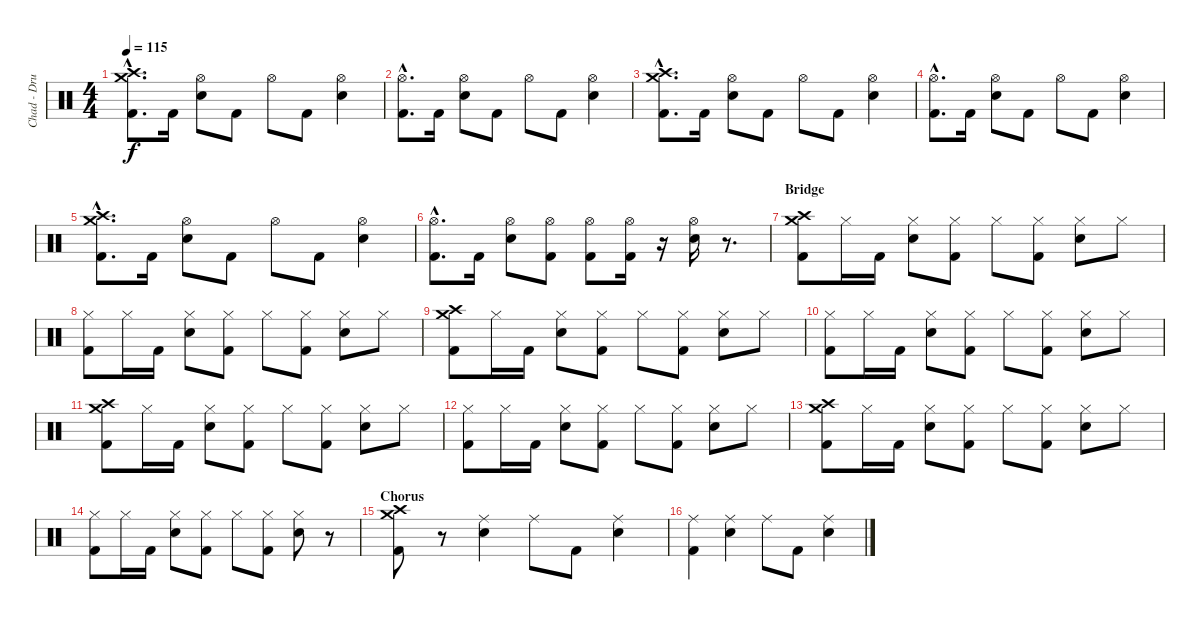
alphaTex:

\track ("Chad - Drums" "Chad - Dru") {instrument percussion}
\staff {score}
\articulation defaults
\ts (4 4)
\tempo 115
\clef neutral
\ks c
("Kick (hit) 2"{hac} "Crash medium (hit)"{hac} "Crash high (hit)"{hac}).8{d dy f} "Kick (hit) 2".16 ("Hi-Hat (open)" "Electric Snare (hit)").8 "Kick (hit) 2".8 "Hi-Hat (open)".8 "Kick (hit) 2".8 ("Hi-Hat (open)" "Electric Snare (hit)").4 |
("Kick (hit) 2"{hac} "Hi-Hat (open)"{hac}).8{d} "Kick (hit) 2".16 ("Electric Snare (hit)" "Hi-Hat (open)").8 "Kick (hit) 2".8 "Hi-Hat (open)".8 "Kick (hit) 2".8 ("Hi-Hat (open)" "Electric Snare (hit)").4 |
("Crash medium (hit)"{hac} "Crash high (hit)"{hac} "Kick (hit) 2"{hac}).8{d} "Kick (hit) 2".16 ("Electric Snare (hit)" "Hi-Hat (open)").8 "Kick (hit) 2".8 "Hi-Hat (open)".8 "Kick (hit) 2".8 ("Hi-Hat (open)" "Electric Snare (hit)").4 |
("Kick (hit) 2"{hac} "Hi-Hat (open)"{hac}).8{d} "Kick (hit) 2".16 ("Electric Snare (hit)" "Hi-Hat (open)").8 "Kick (hit) 2".8 "Hi-Hat (open)".8 "Kick (hit) 2".8 ("Hi-Hat (open)" "Electric Snare (hit)").4 |
("Kick (hit) 2"{hac} "Crash medium (hit)"{hac} "Crash high (hit)"{hac}).8{d} "Kick (hit) 2".16 ("Electric Snare (hit)" "Hi-Hat (open)").8 "Kick (hit) 2".8 "Hi-Hat (open)".8 "Kick (hit) 2".8 ("Electric Snare (hit)" "Hi-Hat (open)").4 |
("Kick (hit) 2"{hac} "Hi-Hat (open)"{hac}).8{d} "Kick (hit) 2".16 ("Hi-Hat (open)" "Electric Snare (hit)").8 ("Hi-Hat (open)" "Kick (hit) 2").8 ("Hi-Hat (open)" "Kick (hit) 2").8 ("Hi-Hat (open)" "Kick (hit) 2").16 r.16 ("Hi-Hat (open)" "Electric Snare (hit)").16 r.8{d} |
\section ("" "Bridge")
("Kick (hit) 2" "Crash medium (hit)" "Crash high (hit)").8 "Hi-Hat (closed)".16 "Kick (hit) 2".16 ("Hi-Hat (closed)" "Electric Snare (hit)").8 ("Kick (hit) 2" "Hi-Hat (closed)").8 "Hi-Hat (closed)".8 ("Kick (hit) 2" "Hi-Hat (closed)").8 ("Hi-Hat (closed)" "Electric Snare (hit)").8 "Hi-Hat (closed)".8 |
("Hi-Hat (closed)" "Kick (hit) 2").8 "Hi-Hat (closed)".16 "Kick (hit) 2".16 ("Hi-Hat (closed)" "Electric Snare (hit)").8 ("Hi-Hat (closed)" "Kick (hit) 2").8 "Hi-Hat (closed)".8 ("Kick (hit) 2" "Hi-Hat (closed)").8 ("Hi-Hat (closed)" "Electric Snare (hit)").8 "Hi-Hat (closed)".8 |
("Kick (hit) 2" "Crash medium (hit)" "Crash high (hit)").8 "Hi-Hat (closed)".16 "Kick (hit) 2".16 ("Hi-Hat (closed)" "Electric Snare (hit)").8 ("Kick (hit) 2" "Hi-Hat (closed)").8 "Hi-Hat (closed)".8 ("Kick (hit) 2" "Hi-Hat (closed)").8 ("Hi-Hat (closed)" "Electric Snare (hit)").8 "Hi-Hat (closed)".8 |
("Hi-Hat (closed)" "Kick (hit) 2").8 "Hi-Hat (closed)".16 "Kick (hit) 2".16 ("Hi-Hat (closed)" "Electric Snare (hit)").8 ("Hi-Hat (closed)" "Kick (hit) 2").8 "Hi-Hat (closed)".8 ("Kick (hit) 2" "Hi-Hat (closed)").8 ("Hi-Hat (closed)" "Electric Snare (hit)").8 "Hi-Hat (closed)".8 |
("Kick (hit) 2" "Crash medium (hit)" "Crash high (hit)").8 "Hi-Hat (closed)".16 "Kick (hit) 2".16 ("Electric Snare (hit)" "Hi-Hat (closed)").8 ("Kick (hit) 2" "Hi-Hat (closed)").8 "Hi-Hat (closed)".8 ("Kick (hit) 2" "Hi-Hat (closed)").8 ("Hi-Hat (closed)" "Electric Snare (hit)").8 "Hi-Hat (closed)".8 |
("Hi-Hat (closed)" "Kick (hit) 2").8 "Hi-Hat (closed)".16 "Kick (hit) 2".16 ("Electric Snare (hit)" "Hi-Hat (closed)").8 ("Kick (hit) 2" "Hi-Hat (closed)").8 "Hi-Hat (closed)".8 ("Kick (hit) 2" "Hi-Hat (closed)").8 ("Hi-Hat (closed)" "Electric Snare (hit)").8 "Hi-Hat (closed)".8 |
("Kick (hit) 2" "Crash high (hit)" "Crash medium (hit)").8 "Hi-Hat (closed)".16 "Kick (hit) 2".16 ("Hi-Hat (closed)" "Electric Snare (hit)").8 ("Kick (hit) 2" "Hi-Hat (closed)").8 "Hi-Hat (closed)".8 ("Hi-Hat (closed)" "Kick (hit) 2").8 ("Electric Snare (hit)" "Hi-Hat (closed)").8 "Hi-Hat (closed)".8 |
("Hi-Hat (closed)" "Kick (hit) 2").8 "Hi-Hat (closed)".16 "Kick (hit) 2".16 ("Hi-Hat (closed)" "Electric Snare (hit)").8 ("Hi-Hat (closed)" "Kick (hit) 2").8 "Hi-Hat (closed)".8 ("Hi-Hat (closed)" "Kick (hit) 2").8 ("Electric Snare (hit)" "Hi-Hat (closed)").8 r.8 |
\section ("" "Chorus")
("Crash high (hit)" "Crash medium (hit)" "Kick (hit) 2").8 r.8 ("Ride (middle)" "Electric Snare (hit)").4 "Ride (middle)".8 "Kick (hit) 2".8 ("Ride (middle)" "Electric Snare (hit)").4 |
("Ride (middle)" "Kick (hit) 2").4 ("Ride (middle)" "Electric Snare (hit)").4 "Ride (middle)".8 "Kick (hit) 2".8 ("Ride (middle)" "Electric Snare (hit)").4
